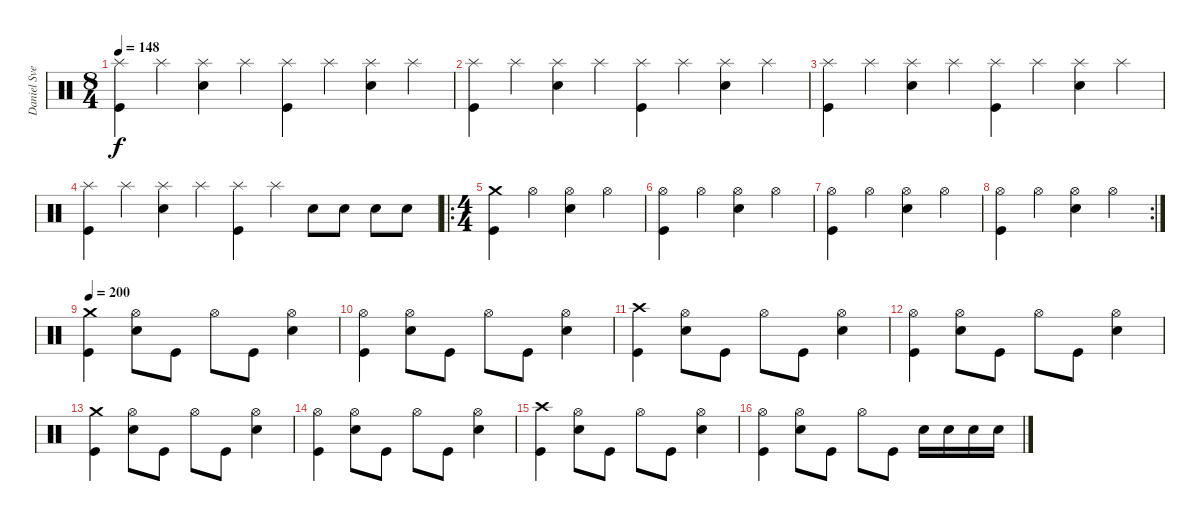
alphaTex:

\track ("Daniel Svenson" "Daniel Sve") {instrument percussion}
\staff {score}
\articulation defaults
\ts (8 4)
\tempo 148
\clef neutral
\ks c
("Kick (hit)" "Splash (hit)").4{dy f} "Splash (hit)".4 ("Electric Snare (hit)" "Splash (hit)").4 "Splash (hit)".4 ("Kick (hit)" "Splash (hit)").4 "Splash (hit)".4 ("Electric Snare (hit)" "Splash (hit)").4 "Splash (hit)".4 |
("Kick (hit)" "Splash (hit)").4 "Splash (hit)".4 ("Electric Snare (hit)" "Splash (hit)").4 "Splash (hit)".4 ("Kick (hit)" "Splash (hit)").4 "Splash (hit)".4 ("Electric Snare (hit)" "Splash (hit)").4 "Splash (hit)".4 |
("Kick (hit)" "Splash (hit)").4 "Splash (hit)".4 ("Electric Snare (hit)" "Splash (hit)").4 "Splash (hit)".4 ("Kick (hit)" "Splash (hit)").4 "Splash (hit)".4 ("Electric Snare (hit)" "Splash (hit)").4 "Splash (hit)".4 |
("Kick (hit)" "Splash (hit)").4 "Splash (hit)".4 ("Electric Snare (hit)" "Splash (hit)").4 "Splash (hit)".4 ("Kick (hit)" "Splash (hit)").4 "Splash (hit)".4 "Electric Snare (hit)".8 "Electric Snare (hit)".8 "Electric Snare (hit)".8 "Electric Snare (hit)".8 |
\ro
\ts (4 4)
("Kick (hit)" "Crash medium (hit)").4 "Hi-Hat (open)".4 ("Electric Snare (hit)" "Hi-Hat (open)").4 "Hi-Hat (open)".4 |
("Kick (hit)" "Hi-Hat (open)").4 "Hi-Hat (open)".4 ("Electric Snare (hit)" "Hi-Hat (open)").4 "Hi-Hat (open)".4 |
("Kick (hit)" "Hi-Hat (open)").4 "Hi-Hat (open)".4 ("Electric Snare (hit)" "Hi-Hat (open)").4 "Hi-Hat (open)".4 |
\rc 2
("Kick (hit)" "Hi-Hat (open)").4 "Hi-Hat (open)".4 ("Electric Snare (hit)" "Hi-Hat (open)").4 "Hi-Hat (open)".4 |
\tempo 200
("Kick (hit)" "Crash medium (hit)").4 ("Electric Snare (hit)" "Hi-Hat (open)").8 "Kick (hit)".8 "Hi-Hat (open)".8 "Kick (hit)".8 ("Electric Snare (hit)" "Hi-Hat (open)").4 |
("Kick (hit)" "Hi-Hat (open)").4 ("Electric Snare (hit)" "Hi-Hat (open)").8 "Kick (hit)".8 "Hi-Hat (open)".8 "Kick (hit)".8 ("Electric Snare (hit)" "Hi-Hat (open)").4 |
("Kick (hit)" "Crash high (hit)").4 ("Electric Snare (hit)" "Hi-Hat (open)").8 "Kick (hit)".8 "Hi-Hat (open)".8 "Kick (hit)".8 ("Electric Snare (hit)" "Hi-Hat (open)").4 |
("Kick (hit)" "Hi-Hat (open)").4 ("Electric Snare (hit)" "Hi-Hat (open)").8 "Kick (hit)".8 "Hi-Hat (open)".8 "Kick (hit)".8 ("Electric Snare (hit)" "Hi-Hat (open)").4 |
("Kick (hit)" "Crash medium (hit)").4 ("Electric Snare (hit)" "Hi-Hat (open)").8 "Kick (hit)".8 "Hi-Hat (open)".8 "Kick (hit)".8 ("Electric Snare (hit)" "Hi-Hat (open)").4 |
("Kick (hit)" "Hi-Hat (open)").4 ("Electric Snare (hit)" "Hi-Hat (open)").8 "Kick (hit)".8 "Hi-Hat (open)".8 "Kick (hit)".8 ("Electric Snare (hit)" "Hi-Hat (open)").4 |
("Kick (hit)" "Crash high (hit)").4 ("Electric Snare (hit)" "Hi-Hat (open)").8 "Kick (hit)".8 "Hi-Hat (open)".8 "Kick (hit)".8 ("Electric Snare (hit)" "Hi-Hat (open)").4 |
("Kick (hit)" "Hi-Hat (open)").4 ("Electric Snare (hit)" "Hi-Hat (open)").8 "Kick (hit)".8 "Hi-Hat (open)".8 "Kick (hit)".8 "Electric Snare (hit)".16 "Electric Snare (hit)".16 "Electric Snare (hit)".16 "Electric Snare (hit)".16
